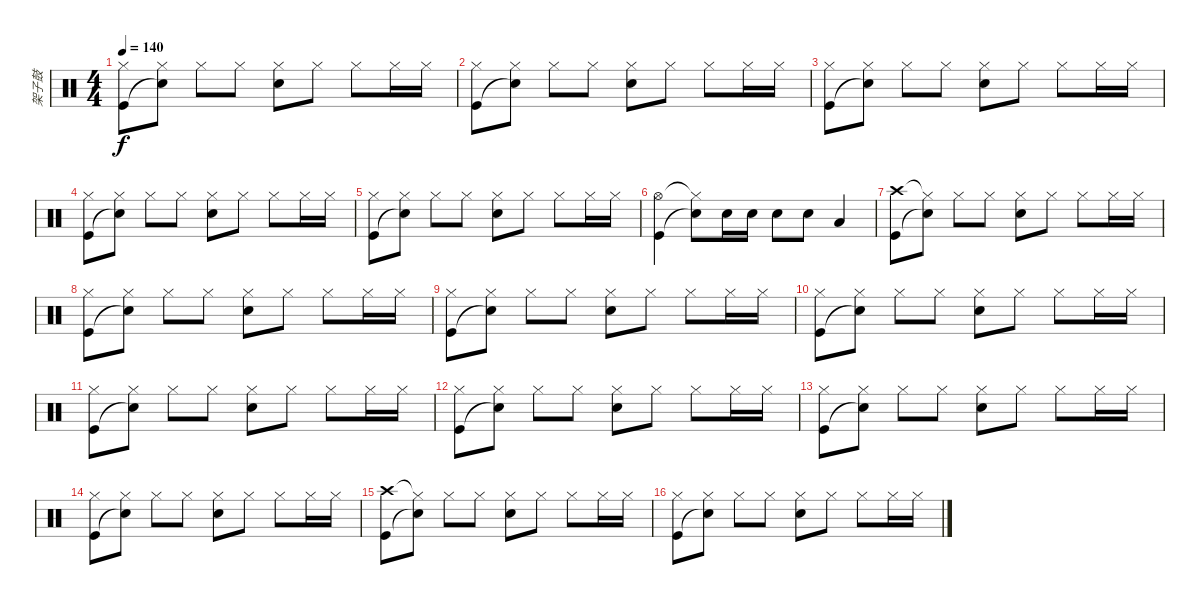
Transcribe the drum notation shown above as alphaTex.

\track ("架子鼓" "架子鼓") {instrument percussion}
\staff {score}
\articulation defaults
\ts (4 4)
\tempo 140
\clef neutral
\ks c
("Hi-Hat (closed)" "Kick (hit)").8{dy f} ("Hi-Hat (closed)" "Snare (hit)"{t}).8 "Hi-Hat (closed)".8 "Hi-Hat (closed)".8 ("Hi-Hat (closed)" "Snare (hit) 2").8 "Hi-Hat (closed)".8 "Hi-Hat (closed)".8 "Hi-Hat (closed)".16 "Hi-Hat (closed)".16 |
("Hi-Hat (closed)" "Kick (hit)").8 ("Hi-Hat (closed)" "Snare (hit)"{t}).8 "Hi-Hat (closed)".8 "Hi-Hat (closed)".8 ("Hi-Hat (closed)" "Snare (hit) 2").8 "Hi-Hat (closed)".8 "Hi-Hat (closed)".8 "Hi-Hat (closed)".16 "Hi-Hat (closed)".16 |
("Hi-Hat (closed)" "Kick (hit)").8 ("Hi-Hat (closed)" "Snare (hit)"{t}).8 "Hi-Hat (closed)".8 "Hi-Hat (closed)".8 ("Hi-Hat (closed)" "Snare (hit) 2").8 "Hi-Hat (closed)".8 "Hi-Hat (closed)".8 "Hi-Hat (closed)".16 "Hi-Hat (closed)".16 |
("Hi-Hat (closed)" "Kick (hit)").8 ("Hi-Hat (closed)" "Snare (hit)"{t}).8 "Hi-Hat (closed)".8 "Hi-Hat (closed)".8 ("Hi-Hat (closed)" "Snare (hit) 2").8 "Hi-Hat (closed)".8 "Hi-Hat (closed)".8 "Hi-Hat (closed)".16 "Hi-Hat (closed)".16 |
("Hi-Hat (closed)" "Kick (hit)").8 ("Hi-Hat (closed)" "Snare (hit)"{t}).8 "Hi-Hat (closed)".8 "Hi-Hat (closed)".8 ("Hi-Hat (closed)" "Snare (hit) 2").8 "Hi-Hat (closed)".8 "Hi-Hat (closed)".8 "Hi-Hat (closed)".16 "Hi-Hat (closed)".16 |
("Hi-Hat (open)" "Kick (hit)").4 ("Hi-Hat (closed)"{t} "Snare (hit)"{t}).8 "Snare (hit) 2".16 "Snare (hit) 2".16 "Snare (hit) 2".8 "Snare (hit) 2".8 "Low Tom (hit)".4 |
("Crash high (hit)" "Kick (hit)").8 ("Hi-Hat (closed)"{t} "Snare (hit)"{t}).8 "Hi-Hat (closed)".8 "Hi-Hat (closed)".8 ("Hi-Hat (closed)" "Snare (hit) 2").8 "Hi-Hat (closed)".8 "Hi-Hat (closed)".8 "Hi-Hat (closed)".16 "Hi-Hat (closed)".16 |
("Hi-Hat (closed)" "Kick (hit)").8 ("Hi-Hat (closed)" "Snare (hit)"{t}).8 "Hi-Hat (closed)".8 "Hi-Hat (closed)".8 ("Hi-Hat (closed)" "Snare (hit) 2").8 "Hi-Hat (closed)".8 "Hi-Hat (closed)".8 "Hi-Hat (closed)".16 "Hi-Hat (closed)".16 |
("Hi-Hat (closed)" "Kick (hit)").8 ("Hi-Hat (closed)" "Snare (hit)"{t}).8 "Hi-Hat (closed)".8 "Hi-Hat (closed)".8 ("Hi-Hat (closed)" "Snare (hit) 2").8 "Hi-Hat (closed)".8 "Hi-Hat (closed)".8 "Hi-Hat (closed)".16 "Hi-Hat (closed)".16 |
("Hi-Hat (closed)" "Kick (hit)").8 ("Hi-Hat (closed)" "Snare (hit)"{t}).8 "Hi-Hat (closed)".8 "Hi-Hat (closed)".8 ("Hi-Hat (closed)" "Snare (hit) 2").8 "Hi-Hat (closed)".8 "Hi-Hat (closed)".8 "Hi-Hat (closed)".16 "Hi-Hat (closed)".16 |
("Hi-Hat (closed)" "Kick (hit)").8 ("Hi-Hat (closed)" "Snare (hit)"{t}).8 "Hi-Hat (closed)".8 "Hi-Hat (closed)".8 ("Hi-Hat (closed)" "Snare (hit) 2").8 "Hi-Hat (closed)".8 "Hi-Hat (closed)".8 "Hi-Hat (closed)".16 "Hi-Hat (closed)".16 |
("Hi-Hat (closed)" "Kick (hit)").8 ("Hi-Hat (closed)" "Snare (hit)"{t}).8 "Hi-Hat (closed)".8 "Hi-Hat (closed)".8 ("Hi-Hat (closed)" "Snare (hit) 2").8 "Hi-Hat (closed)".8 "Hi-Hat (closed)".8 "Hi-Hat (closed)".16 "Hi-Hat (closed)".16 |
("Hi-Hat (closed)" "Kick (hit)").8 ("Hi-Hat (closed)" "Snare (hit)"{t}).8 "Hi-Hat (closed)".8 "Hi-Hat (closed)".8 ("Hi-Hat (closed)" "Snare (hit) 2").8 "Hi-Hat (closed)".8 "Hi-Hat (closed)".8 "Hi-Hat (closed)".16 "Hi-Hat (closed)".16 |
("Hi-Hat (closed)" "Kick (hit)").8 ("Hi-Hat (closed)" "Snare (hit)"{t}).8 "Hi-Hat (closed)".8 "Hi-Hat (closed)".8 ("Hi-Hat (closed)" "Snare (hit) 2").8 "Hi-Hat (closed)".8 "Hi-Hat (closed)".8 "Hi-Hat (closed)".16 "Hi-Hat (closed)".16 |
("Crash high (hit)" "Kick (hit)").8 ("Hi-Hat (closed)"{t} "Snare (hit)"{t}).8 "Hi-Hat (closed)".8 "Hi-Hat (closed)".8 ("Hi-Hat (closed)" "Snare (hit) 2").8 "Hi-Hat (closed)".8 "Hi-Hat (closed)".8 "Hi-Hat (closed)".16 "Hi-Hat (closed)".16 |
("Hi-Hat (closed)" "Kick (hit)").8 ("Hi-Hat (closed)" "Snare (hit)"{t}).8 "Hi-Hat (closed)".8 "Hi-Hat (closed)".8 ("Hi-Hat (closed)" "Snare (hit) 2").8 "Hi-Hat (closed)".8 "Hi-Hat (closed)".8 "Hi-Hat (closed)".16 "Hi-Hat (closed)".16
